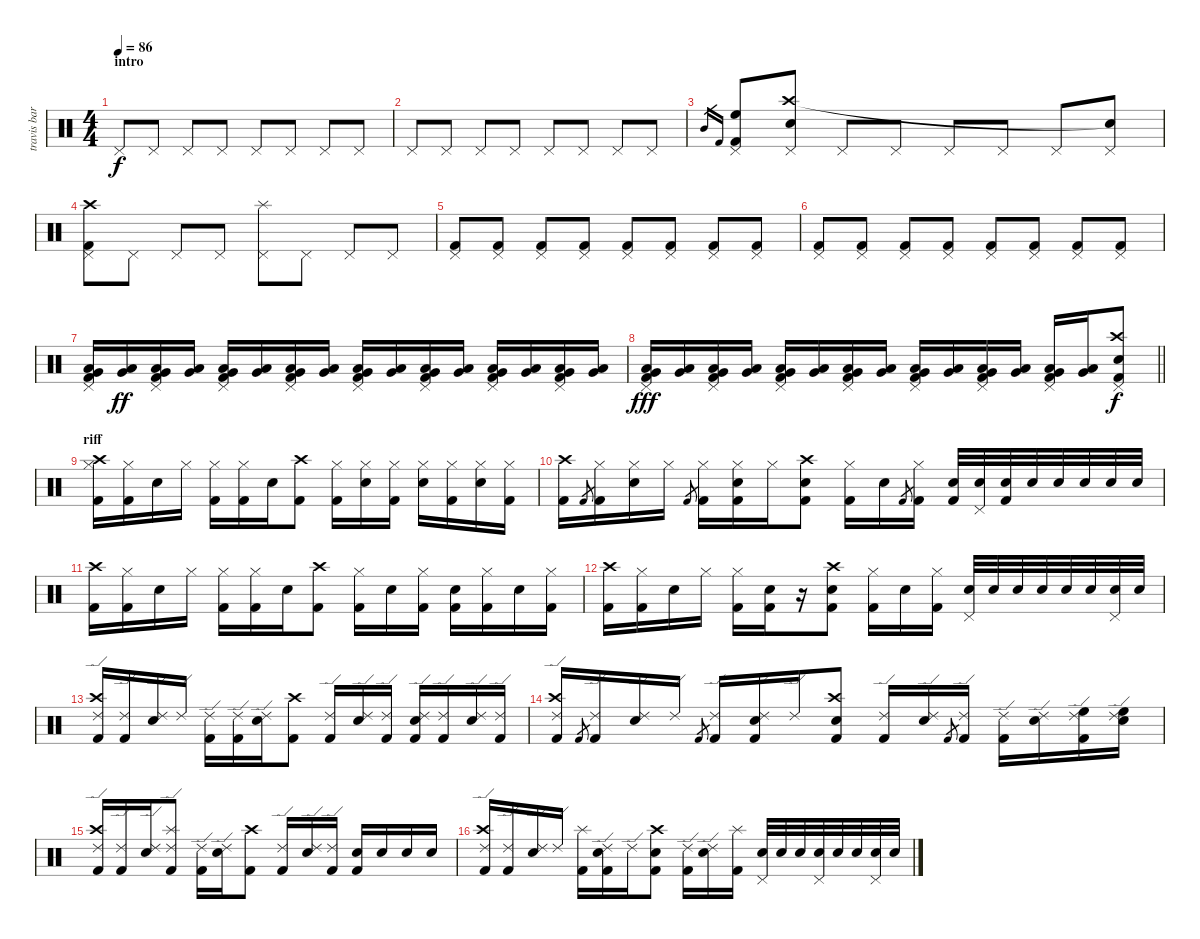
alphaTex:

\track ("travis barker drums" "travis bar") {instrument percussion}
\staff {score}
\articulation defaults
\ts (4 4)
\section ("" "intro")
\tempo 86
\clef neutral
\ks c "Pedal Hi-Hat (hit)".8{dy f volume 16 balance 11} "Pedal Hi-Hat (hit)".8 "Pedal Hi-Hat (hit)".8 "Pedal Hi-Hat (hit)".8 "Pedal Hi-Hat (hit)".8 "Pedal Hi-Hat (hit)".8 "Pedal Hi-Hat (hit)".8 "Pedal Hi-Hat (hit)".8
|
"Pedal Hi-Hat (hit)".8 "Pedal Hi-Hat (hit)".8 "Pedal Hi-Hat (hit)".8 "Pedal Hi-Hat (hit)".8 "Pedal Hi-Hat (hit)".8 "Pedal Hi-Hat (hit)".8 "Pedal Hi-Hat (hit)".8 "Pedal Hi-Hat (hit)".8 |
"Mid Tom (hit)".16{gr} "Kick (hit) 2".16{gr} ("Pedal Hi-Hat (hit)" "High Floor Tom (hit)" "Kick (hit) 2").8 ("Pedal Hi-Hat (hit)" "Crash high (hit)" "Snare (hit) 2").8 "Pedal Hi-Hat (hit)".8 "Pedal Hi-Hat (hit)".8 "Pedal Hi-Hat (hit)".8 "Pedal Hi-Hat (hit)".8 "Pedal Hi-Hat (hit)".8 ("Pedal Hi-Hat (hit)" "Snare (hit)"{t}).8 |
("Crash high (hit)" "Pedal Hi-Hat (hit)" "Kick (hit) 2").8 "Pedal Hi-Hat (hit)".8 "Pedal Hi-Hat (hit)".8 "Pedal Hi-Hat (hit)".8 ("Pedal Hi-Hat (hit)" "Splash (hit)").8 "Pedal Hi-Hat (hit)".8 "Pedal Hi-Hat (hit)".8 "Pedal Hi-Hat (hit)".8 |
("Pedal Hi-Hat (hit)" "Kick (hit) 2").8 ("Pedal Hi-Hat (hit)" "Kick (hit) 2").8 ("Pedal Hi-Hat (hit)" "Kick (hit) 2").8 ("Pedal Hi-Hat (hit)" "Kick (hit) 2").8 ("Pedal Hi-Hat (hit)" "Kick (hit) 2").8 ("Pedal Hi-Hat (hit)" "Kick (hit) 2").8 ("Pedal Hi-Hat (hit)" "Kick (hit) 2").8 ("Pedal Hi-Hat (hit)" "Kick (hit) 2").8 |
("Pedal Hi-Hat (hit)" "Kick (hit) 2").8 ("Pedal Hi-Hat (hit)" "Kick (hit) 2").8 ("Pedal Hi-Hat (hit)" "Kick (hit) 2").8 ("Pedal Hi-Hat (hit)" "Kick (hit) 2").8 ("Pedal Hi-Hat (hit)" "Kick (hit) 2").8 ("Pedal Hi-Hat (hit)" "Kick (hit) 2").8 ("Pedal Hi-Hat (hit)" "Kick (hit) 2").8 ("Pedal Hi-Hat (hit)" "Kick (hit) 2").8 |
("Pedal Hi-Hat (hit)" "Low Floor Tom (hit)" "Very Low Tom (hit)" "Kick (hit) 2").16{balance 8} ("Low Floor Tom (hit)" "Very Low Tom (hit)").16{dy ff} ("Pedal Hi-Hat (hit)" "Low Floor Tom (hit)" "Very Low Tom (hit)" "Kick (hit) 2").16 ("Low Floor Tom (hit)" "Very Low Tom (hit)").16 ("Pedal Hi-Hat (hit)" "Low Floor Tom (hit)" "Very Low Tom (hit)" "Kick (hit) 2").16 ("Low Floor Tom (hit)" "Very Low Tom (hit)").16 ("Pedal Hi-Hat (hit)" "Low Floor Tom (hit)" "Very Low Tom (hit)" "Kick (hit) 2").16 ("Low Floor Tom (hit)" "Very Low Tom (hit)").16 ("Pedal Hi-Hat (hit)" "Low Floor Tom (hit)" "Very Low Tom (hit)" "Kick (hit) 2").16 ("Low Floor Tom (hit)" "Very Low Tom (hit)").16 ("Pedal Hi-Hat (hit)" "Low Floor Tom (hit)" "Very Low Tom (hit)" "Kick (hit) 2").16 ("Low Floor Tom (hit)" "Very Low Tom (hit)").16 ("Pedal Hi-Hat (hit)" "Low Floor Tom (hit)" "Very Low Tom (hit)" "Kick (hit) 2").16 ("Low Floor Tom (hit)" "Very Low Tom (hit)").16 ("Pedal Hi-Hat (hit)" "Low Floor Tom (hit)" "Very Low Tom (hit)" "Kick (hit) 2").16 ("Low Floor Tom (hit)" "Very Low Tom (hit)").16 |
\barLineRight lightlight
("Pedal Hi-Hat (hit)" "Low Floor Tom (hit)" "Very Low Tom (hit)" "Kick (hit) 2").16{dy fff} ("Low Floor Tom (hit)" "Very Low Tom (hit)").16 ("Pedal Hi-Hat (hit)" "Low Floor Tom (hit)" "Very Low Tom (hit)" "Kick (hit) 2").16 ("Low Floor Tom (hit)" "Very Low Tom (hit)").16 ("Pedal Hi-Hat (hit)" "Low Floor Tom (hit)" "Very Low Tom (hit)" "Kick (hit) 2").16 ("Low Floor Tom (hit)" "Very Low Tom (hit)").16 ("Pedal Hi-Hat (hit)" "Low Floor Tom (hit)" "Very Low Tom (hit)" "Kick (hit) 2").16 ("Low Floor Tom (hit)" "Very Low Tom (hit)").16 ("Pedal Hi-Hat (hit)" "Low Floor Tom (hit)" "Very Low Tom (hit)" "Kick (hit) 2").16 ("Low Floor Tom (hit)" "Very Low Tom (hit)").16 ("Pedal Hi-Hat (hit)" "Low Floor Tom (hit)" "Very Low Tom (hit)" "Kick (hit) 2").16 ("Low Floor Tom (hit)" "Very Low Tom (hit)").16 ("Pedal Hi-Hat (hit)" "Low Floor Tom (hit)" "Very Low Tom (hit)" "Kick (hit) 2").16 ("Low Floor Tom (hit)" "Very Low Tom (hit)").16 ("Pedal Hi-Hat (hit)" "Crash high (hit)" "Snare (hit) 2" "Kick (hit) 2").8{dy f} |
\section ("" "riff")
("Hi-Hat (closed)" "Crash high (hit)" "Kick (hit) 2").16{balance 8} ("Hi-Hat (closed)" "Kick (hit) 2").16 "Snare (hit) 2".16 "Hi-Hat (closed)".16 ("Hi-Hat (closed)" "Kick (hit) 2").16 ("Hi-Hat (closed)" "Kick (hit) 2").16 "Snare (hit) 2".16 ("Crash high (hit)" "Kick (hit) 2").8 ("Hi-Hat (closed)" "Kick (hit) 2").16 ("Hi-Hat (closed)" "Snare (hit) 2").16 ("Hi-Hat (closed)" "Kick (hit) 2").16 ("Hi-Hat (closed)" "Snare (hit) 2").16 ("Hi-Hat (closed)" "Kick (hit) 2").16 ("Hi-Hat (closed)" "Snare (hit) 2").16 ("Hi-Hat (closed)" "Kick (hit) 2").16 |
("Crash high (hit)" "Kick (hit) 2").16 "Kick (hit) 2".8{gr} ("Hi-Hat (closed)" "Kick (hit) 2").16 ("Hi-Hat (closed)" "Snare (hit) 2").16 "Hi-Hat (closed)".16 "Kick (hit) 2".8{gr} ("Hi-Hat (closed)" "Kick (hit) 2").16 ("Hi-Hat (closed)" "Snare (hit) 2" "Kick (hit) 2").16 "Hi-Hat (closed)".16 ("Crash high (hit)" "Snare (hit) 2" "Kick (hit) 2"{tr (36 16)}).8 ("Hi-Hat (closed)" "Kick (hit) 2").16 "Snare (hit) 2".16 "Kick (hit) 2".8{gr} ("Hi-Hat (closed)" "Kick (hit) 2").16 ("Snare (hit) 2" "Kick (hit) 2").32 ("Pedal Hi-Hat (hit)" "Snare (hit) 2").32 ("Snare (hit) 2" "Kick (hit) 2").32 "Snare (hit) 2".32 "Snare (hit) 2".32 "Snare (hit) 2".32 "Snare (hit) 2".32 "Snare (hit) 2".32 |
("Crash high (hit)" "Kick (hit) 2").16 ("Hi-Hat (closed)" "Kick (hit) 2").16 "Snare (hit) 2".16 "Hi-Hat (closed)".16 ("Hi-Hat (closed)" "Kick (hit) 2").16 ("Hi-Hat (closed)" "Kick (hit) 2").16 "Snare (hit) 2".16 ("Crash high (hit)" "Kick (hit) 2").8 ("Hi-Hat (closed)" "Kick (hit) 2").16 "Snare (hit) 2".16 ("Hi-Hat (closed)" "Kick (hit) 2").16 ("Snare (hit) 2" "Kick (hit) 2").16 ("Hi-Hat (closed)" "Kick (hit) 2").16 "Snare (hit) 2".16 ("Hi-Hat (closed)" "Kick (hit) 2").16 |
("Crash high (hit)" "Kick (hit) 2").16 ("Hi-Hat (closed)" "Kick (hit) 2").16 "Snare (hit) 2".16 "Hi-Hat (closed)".16 ("Hi-Hat (closed)" "Kick (hit) 2").16 ("Snare (hit) 2" "Kick (hit) 2").16 r.16 ("Crash high (hit)" "Snare (hit) 2" "Kick (hit) 2").8 ("Hi-Hat (closed)" "Kick (hit) 2").16 "Snare (hit) 2".16 ("Hi-Hat (closed)" "Kick (hit) 2").16 ("Pedal Hi-Hat (hit)" "Snare (hit) 2").32 "Snare (hit) 2".32 "Snare (hit) 2".32 "Snare (hit) 2".32 "Snare (hit) 2".32 "Snare (hit) 2".32 ("Pedal Hi-Hat (hit)" "Snare (hit) 2").32 "Snare (hit) 2".32 |
("Ride (edge) 2" "Crash high (hit)" "Kick (hit) 2").16 ("Ride (edge) 2" "Kick (hit) 2").16 ("Ride (edge) 2" "Snare (hit) 2").16 "Ride (edge) 2".16 ("Ride (edge) 2" "Kick (hit) 2").16 ("Ride (edge) 2" "Kick (hit) 2").16 ("Ride (edge) 2" "Snare (hit) 2").16 ("Crash high (hit)" "Kick (hit) 2").8 ("Ride (edge) 2" "Kick (hit) 2").16 ("Ride (edge) 2" "Snare (hit) 2").16 ("Ride (edge) 2" "Kick (hit) 2").16 ("Ride (edge) 2" "Snare (hit) 2" "Kick (hit) 2").16 ("Ride (edge) 2" "Kick (hit) 2").16 ("Ride (edge) 2" "Snare (hit) 2").16 ("Ride (edge) 2" "Kick (hit) 2").16 |
("Ride (edge) 2" "Crash high (hit)" "Kick (hit) 2").16 "Kick (hit) 2".8{gr} ("Ride (edge) 2" "Kick (hit) 2").16 ("Ride (edge) 2" "Snare (hit) 2").16 "Ride (edge) 2".16 "Kick (hit) 2".8{gr} ("Ride (edge) 2" "Kick (hit) 2").16 ("Ride (edge) 2" "Snare (hit) 2" "Kick (hit) 2").16 "Ride (edge) 2".16 ("Crash high (hit)" "Snare (hit) 2" "Kick (hit) 2"{tr (36 16)}).8 ("Ride (edge) 2" "Kick (hit) 2").16 ("Ride (edge) 2" "Snare (hit) 2").16 "Kick (hit) 2".8{gr} ("Ride (edge) 2" "Kick (hit) 2").16 ("Ride (edge) 2" "Kick (hit) 2").16 ("Ride (edge) 2" "Snare (hit) 2").16 ("Ride (edge) 2" "High Floor Tom (hit)" "Kick (hit) 2").16 ("Ride (edge) 2" "High Floor Tom (hit)" "Snare (hit) 2").16 |
("Ride (edge) 2" "Crash high (hit)" "Kick (hit) 2").16 ("Ride (edge) 2" "Kick (hit) 2").16 ("Ride (edge) 2" "Snare (hit) 2").16 ("Ride (edge) 2" "Splash (hit)" "Kick (hit) 2").8 ("Ride (edge) 2" "Kick (hit) 2").16 ("Ride (edge) 2" "Snare (hit) 2").16 ("Crash high (hit)" "Kick (hit) 2").8 ("Ride (edge) 2" "Kick (hit) 2").16 ("Ride (edge) 2" "Snare (hit) 2").16 ("Ride (edge) 2" "Kick (hit) 2").16 ("Snare (hit) 2" "Kick (hit) 2").16 "Snare (hit) 2".16 "Snare (hit) 2".16 "Snare (hit) 2".16 |
("Ride (edge) 2" "Crash high (hit)" "Kick (hit) 2").16 ("Ride (edge) 2" "Kick (hit) 2").16 ("Ride (edge) 2" "Snare (hit) 2").16 "Ride (edge) 2".16 ("Splash (hit)" "Kick (hit) 2").16 ("Ride (edge) 2" "Snare (hit) 2" "Kick (hit) 2").16 "Ride (edge) 2".16 ("Crash high (hit)" "Snare (hit) 2" "Kick (hit) 2").8 ("Ride (edge) 2" "Kick (hit) 2").16 ("Ride (edge) 2" "Snare (hit) 2").16 ("Splash (hit)" "Kick (hit) 2").16 ("Pedal Hi-Hat (hit)" "Snare (hit) 2").32 "Snare (hit) 2".32 "Snare (hit) 2".32 ("Pedal Hi-Hat (hit)" "Snare (hit) 2").32 "Snare (hit) 2".32 "Snare (hit) 2".32 ("Pedal Hi-Hat (hit)" "Snare (hit) 2").32 "Snare (hit) 2".32
